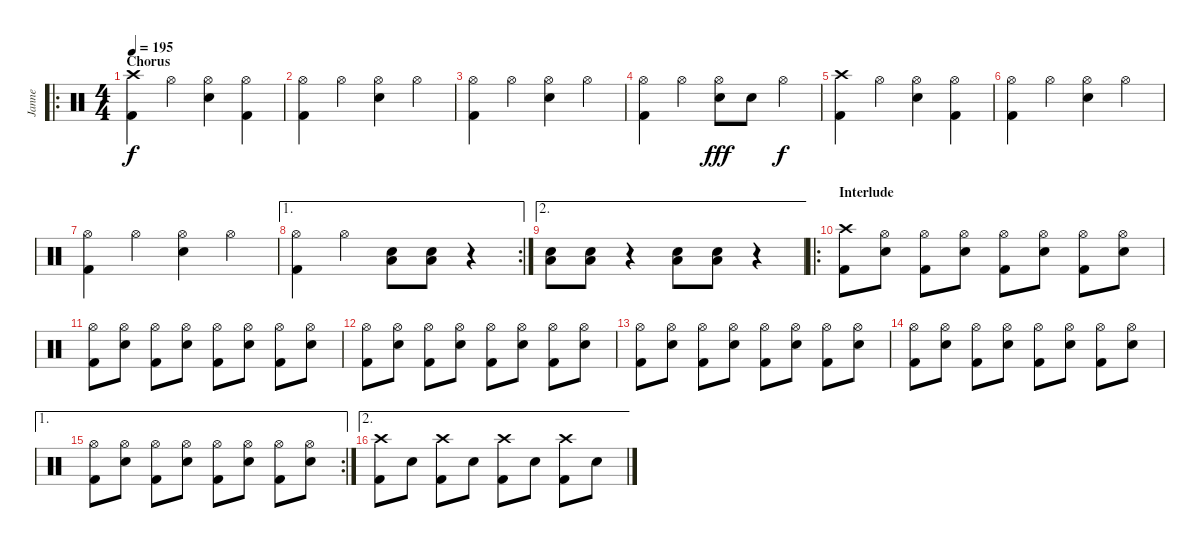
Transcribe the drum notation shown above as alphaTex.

\track ("Janne" "Janne") {instrument percussion}
\staff {score}
\articulation defaults
\ro
\ts (4 4)
\section ("" "Chorus")
\tempo 195
\clef neutral
\ks c
("Crash high (hit)" "Kick (hit) 2").4{dy f} "Hi-Hat (open)".4 ("Hi-Hat (open)" "Electric Snare (hit)").4 ("Hi-Hat (open)" "Kick (hit) 2").4 |
("Hi-Hat (open)" "Kick (hit) 2").4 "Hi-Hat (open)".4 ("Hi-Hat (open)" "Electric Snare (hit)").4 "Hi-Hat (open)".4 |
("Hi-Hat (open)" "Kick (hit) 2").4 "Hi-Hat (open)".4 ("Hi-Hat (open)" "Electric Snare (hit)").4 "Hi-Hat (open)".4 |
("Hi-Hat (open)" "Kick (hit) 2").4 "Hi-Hat (open)".4 ("Hi-Hat (open)" "Electric Snare (hit)").8{dy fff} "Electric Snare (hit)".8 "Hi-Hat (open)".4{dy f} |
("Crash high (hit)" "Kick (hit) 2").4 "Hi-Hat (open)".4 ("Hi-Hat (open)" "Electric Snare (hit)").4 ("Hi-Hat (open)" "Kick (hit) 2").4 |
("Hi-Hat (open)" "Kick (hit) 2").4 "Hi-Hat (open)".4 ("Hi-Hat (open)" "Electric Snare (hit)").4 "Hi-Hat (open)".4 |
("Hi-Hat (open)" "Kick (hit) 2").4 "Hi-Hat (open)".4 ("Hi-Hat (open)" "Electric Snare (hit)").4 "Hi-Hat (open)".4 |
\ae 1
\rc 2
("Hi-Hat (open)" "Kick (hit) 2").4 "Hi-Hat (open)".4 ("Low Floor Tom (hit)" "Electric Snare (hit)").8 ("Low Floor Tom (hit)" "Electric Snare (hit)").8 r.4 |
\ae 2
("Low Floor Tom (hit)" "Electric Snare (hit)").8 ("Low Floor Tom (hit)" "Electric Snare (hit)").8 r.4 ("Low Floor Tom (hit)" "Electric Snare (hit)").8 ("Low Floor Tom (hit)" "Electric Snare (hit)").8 r.4 |
\ro
\section ("" "Interlude")
("Crash high (hit)" "Kick (hit) 2").8 ("Hi-Hat (open)" "Electric Snare (hit)").8 ("Hi-Hat (open)" "Kick (hit) 2").8 ("Hi-Hat (open)" "Electric Snare (hit)").8 ("Hi-Hat (open)" "Kick (hit) 2").8 ("Hi-Hat (open)" "Electric Snare (hit)").8 ("Hi-Hat (open)" "Kick (hit) 2").8 ("Hi-Hat (open)" "Electric Snare (hit)").8 |
("Hi-Hat (open)" "Kick (hit) 2").8 ("Hi-Hat (open)" "Electric Snare (hit)").8 ("Hi-Hat (open)" "Kick (hit) 2").8 ("Hi-Hat (open)" "Electric Snare (hit)").8 ("Hi-Hat (open)" "Kick (hit) 2").8 ("Hi-Hat (open)" "Electric Snare (hit)").8 ("Hi-Hat (open)" "Kick (hit) 2").8 ("Hi-Hat (open)" "Electric Snare (hit)").8 |
("Hi-Hat (open)" "Kick (hit) 2").8 ("Hi-Hat (open)" "Electric Snare (hit)").8 ("Hi-Hat (open)" "Kick (hit) 2").8 ("Hi-Hat (open)" "Electric Snare (hit)").8 ("Hi-Hat (open)" "Kick (hit) 2").8 ("Hi-Hat (open)" "Electric Snare (hit)").8 ("Hi-Hat (open)" "Kick (hit) 2").8 ("Hi-Hat (open)" "Electric Snare (hit)").8 |
("Hi-Hat (open)" "Kick (hit) 2").8 ("Hi-Hat (open)" "Electric Snare (hit)").8 ("Hi-Hat (open)" "Kick (hit) 2").8 ("Hi-Hat (open)" "Electric Snare (hit)").8 ("Hi-Hat (open)" "Kick (hit) 2").8 ("Hi-Hat (open)" "Electric Snare (hit)").8 ("Hi-Hat (open)" "Kick (hit) 2").8 ("Hi-Hat (open)" "Electric Snare (hit)").8 |
("Hi-Hat (open)" "Kick (hit) 2").8 ("Hi-Hat (open)" "Electric Snare (hit)").8 ("Hi-Hat (open)" "Kick (hit) 2").8 ("Hi-Hat (open)" "Electric Snare (hit)").8 ("Hi-Hat (open)" "Kick (hit) 2").8 ("Hi-Hat (open)" "Electric Snare (hit)").8 ("Hi-Hat (open)" "Kick (hit) 2").8 ("Hi-Hat (open)" "Electric Snare (hit)").8 |
\ae 1
\rc 2
("Hi-Hat (open)" "Kick (hit) 2").8 ("Hi-Hat (open)" "Electric Snare (hit)").8 ("Hi-Hat (open)" "Kick (hit) 2").8 ("Hi-Hat (open)" "Electric Snare (hit)").8 ("Hi-Hat (open)" "Kick (hit) 2").8 ("Hi-Hat (open)" "Electric Snare (hit)").8 ("Hi-Hat (open)" "Kick (hit) 2").8 ("Hi-Hat (open)" "Electric Snare (hit)").8 |
\ae 2
("Crash high (hit)" "Kick (hit) 2").8 "Electric Snare (hit)".8 ("Crash high (hit)" "Kick (hit) 2").8 "Electric Snare (hit)".8 ("Crash high (hit)" "Kick (hit) 2").8 "Electric Snare (hit)".8 ("Crash high (hit)" "Kick (hit) 2").8 "Electric Snare (hit)".8
